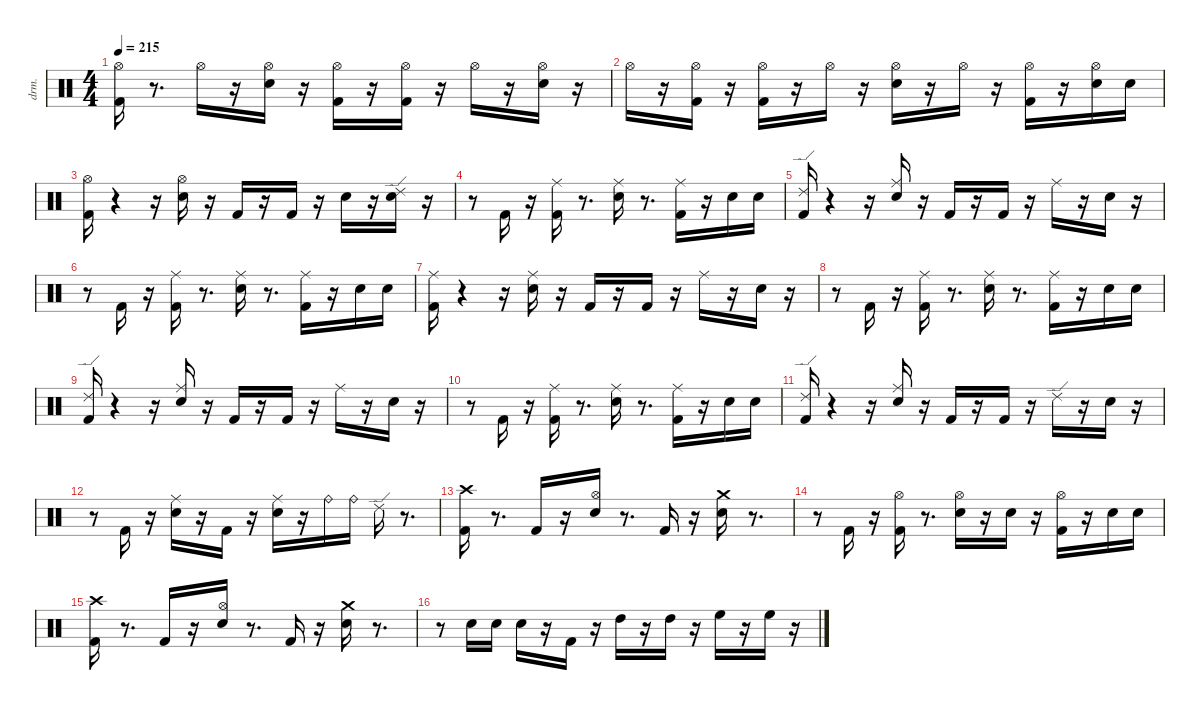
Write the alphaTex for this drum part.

\defaultSystemsLayout 4
\hideDynamics
\bracketExtendMode nobrackets
\otherSystemsTrackNameOrientation horizontal
\track ("drums(暫定)" "drm.") {instrument percussion}
\staff {score}
\articulation defaults
\ts (4 4)
\tempo 215
\clef neutral
\ks aminor
("Kick (hit) 2" "Hi-Hat (open)"{acc #}).16{dy ff beam Down} r.8{d beam Down} "Hi-Hat (open)"{acc #}.16{dy mp beam Down} r.16{beam Down} ("Snare (hit) 2" "Hi-Hat (open)"{acc #}).16{dy ff beam Down} r.16{beam Down} ("Kick (hit) 2" "Hi-Hat (open)"{acc #}).16{dy f beam Down} r.16{beam Down} ("Kick (hit) 2" "Hi-Hat (open)"{acc #}).16{dy ff beam Down} r.16{beam Down} "Hi-Hat (open)"{acc #}.16{dy mf beam Down} r.16{beam Down} ("Snare (hit) 2" "Hi-Hat (open)"{acc #}).16{dy ff beam Down} r.16{beam Down} |
"Hi-Hat (open)"{acc #}.16{dy p beam Down} r.16{beam Down} ("Kick (hit) 2" "Hi-Hat (open)"{acc #}).16{dy ff beam Down} r.16{beam Down} ("Kick (hit) 2" "Hi-Hat (open)"{acc #}).16{beam Down} r.16{beam Down} "Hi-Hat (open)"{acc #}.16{dy ppp beam Down} r.16{beam Down} ("Snare (hit) 2" "Hi-Hat (open)"{acc #}).16{dy ff beam Down} r.16{beam Down} "Hi-Hat (open)"{acc #}.16{dy ppp beam Down} r.16{beam Down} ("Kick (hit) 2" "Hi-Hat (open)"{acc #}).16{dy f beam Down} r.16{beam Down} ("Snare (hit) 2" "Hi-Hat (open)"{acc #}).16{beam Down} "Snare (hit) 2".16{dy pp beam Down} |
("Kick (hit) 2" "Hi-Hat (open)"{acc #}).16{dy fff beam Down} r.4{beam Down} r.16{beam Down} ("Snare (hit) 2" "Hi-Hat (open)"{acc #}).16{dy ff beam Down} r.16{beam Down} "Kick (hit) 2".16{dy f beam Up} r.16{beam Up} "Kick (hit) 2".16{dy ff beam Up} r.16{beam Up} "Snare (hit) 2".16{dy ppp beam Down} r.16{beam Down} ("Snare (hit) 2" "Ride (edge) 2").16{dy fff beam Down} r.16{beam Down} |
r.8{beam Down} "Kick (hit) 2".16{dy f beam Up} r.16{beam Up} ("Kick (hit) 2" "Ride (middle)"{acc #}).16{dy ff beam Down} r.8{d beam Down} ("Snare (hit) 2" "Ride (middle)"{acc #}).16{beam Down} r.8{d beam Down} ("Kick (hit) 2" "Ride (middle)"{acc #}).16{dy f beam Down} r.16{beam Down} "Snare (hit) 2".16{beam Down} "Snare (hit) 2".16{dy pp beam Down} |
("Kick (hit) 2" "Ride (edge) 2").16{dy ff beam Up} r.4{beam Up} r.16{beam Up} ("Snare (hit) 2" "Ride (middle)"{acc #}).16{beam Down} r.16{beam Down} "Kick (hit) 2".16{dy f beam Up} r.16{beam Up} "Kick (hit) 2".16{dy ff beam Up} r.16{beam Up} "Ride (middle)"{acc #}.16{dy mp beam Down} r.16{beam Down} "Snare (hit) 2".16{dy ff beam Down} r.16{beam Down} |
r.8{beam Down} "Kick (hit) 2".16{beam Up} r.16{beam Up} ("Kick (hit) 2" "Ride (middle)"{acc #}).16{beam Down} r.8{d beam Down} ("Snare (hit) 2" "Ride (middle)"{acc #}).16{beam Down} r.8{d beam Down} ("Kick (hit) 2" "Ride (middle)"{acc #}).16{dy f beam Down} r.16{beam Down} "Snare (hit) 2".16{beam Down} "Snare (hit) 2".16{dy pp beam Down} |
("Kick (hit) 2" "Ride (middle)"{acc #}).16{dy ff beam Down} r.4{beam Down} r.16{beam Down} ("Snare (hit) 2" "Ride (middle)"{acc #}).16{beam Down} r.16{beam Down} "Kick (hit) 2".16{dy f beam Up} r.16{beam Up} "Kick (hit) 2".16{dy ff beam Up} r.16{beam Up} "Ride (middle)"{acc #}.16{dy mp beam Down} r.16{beam Down} "Snare (hit) 2".16{dy ff beam Down} r.16{beam Down} |
r.8{beam Down} "Kick (hit) 2".16{beam Up} r.16{beam Up} ("Kick (hit) 2" "Ride (middle)"{acc #}).16{beam Down} r.8{d beam Down} ("Snare (hit) 2" "Ride (middle)"{acc #}).16{beam Down} r.8{d beam Down} ("Kick (hit) 2" "Ride (middle)"{acc #}).16{dy f beam Down} r.16{beam Down} "Snare (hit) 2".16{beam Down} "Snare (hit) 2".16{dy pp beam Down} |
("Kick (hit) 2" "Ride (edge) 2").16{dy ff beam Up} r.4{beam Up} r.16{beam Up} ("Snare (hit) 2" "Ride (middle)"{acc #}).16{beam Down} r.16{beam Down} "Kick (hit) 2".16{dy f beam Up} r.16{beam Up} "Kick (hit) 2".16{dy ff beam Up} r.16{beam Up} "Ride (middle)"{acc #}.16{dy mp beam Down} r.16{beam Down} "Snare (hit) 2".16{dy ff beam Down} r.16{beam Down} |
r.8{beam Down} "Kick (hit) 2".16{beam Up} r.16{beam Up} ("Kick (hit) 2" "Ride (middle)"{acc #}).16{beam Down} r.8{d beam Down} ("Snare (hit) 2" "Ride (middle)"{acc #}).16{beam Down} r.8{d beam Down} ("Kick (hit) 2" "Ride (middle)"{acc #}).16{dy f beam Down} r.16{beam Down} "Snare (hit) 2".16{beam Down} "Snare (hit) 2".16{dy pp beam Down} |
("Kick (hit) 2" "Ride (edge) 2").16{dy ff beam Up} r.4{beam Up} r.16{beam Up} ("Snare (hit) 2" "Ride (middle)"{acc #}).16{beam Down} r.16{beam Down} "Kick (hit) 2".16{dy f beam Up} r.16{beam Up} "Kick (hit) 2".16{dy ff beam Up} r.16{beam Up} "Ride (edge) 2".16{beam Down} r.16{beam Down} "Snare (hit) 2".16{beam Down} r.16{beam Down} |
r.8{beam Down} "Kick (hit) 2".16{beam Up} r.16{beam Up} ("Snare (hit) 2" "Ride (middle)"{acc #}).16{beam Down} r.16{beam Down} "Kick (hit) 2".16{beam Up} r.16{beam Up} ("Snare (hit) 2" "Ride (middle)"{acc #}).16{beam Down} r.16{beam Down} "Ride (bell)".16{dy f beam Down} "Ride (bell)".16{dy p beam Down} "Ride (edge) 2".16{dy fff beam Down} r.8{d beam Down} |
("Kick (hit) 2" "Crash high (hit)"{acc #}).16{beam Down} r.8{d beam Down} "Kick (hit) 2".16{dy f beam Up} r.16{beam Up} ("Snare (hit) 2" "Hi-Hat (open)"{acc #}).16{dy ff beam Down} r.8{d beam Down} "Kick (hit) 2".16{beam Up} r.16{beam Up} ("Snare (hit) 2" "Crash medium (hit)").16{beam Down} r.8{d beam Down} |
r.8{beam Down} "Kick (hit) 2".16{dy mf beam Up} r.16{beam Up} ("Kick (hit) 2" "Hi-Hat (open)"{acc #}).16{dy fff beam Down} r.8{d beam Down} ("Snare (hit) 2" "Hi-Hat (open)"{acc #}).16{beam Down} r.16{beam Down} "Snare (hit) 2".16{dy p beam Down} r.16{beam Down} ("Kick (hit) 2" "Hi-Hat (open)"{acc #}).16{dy ff beam Down} r.16{beam Down} "Snare (hit) 2".16{dy mp beam Down} "Snare (hit) 2".16{dy ppp beam Down} |
("Kick (hit) 2" "Crash high (hit)"{acc #}).16{dy fff beam Down} r.8{d beam Down} "Kick (hit) 2".16{dy f beam Up} r.16{beam Up} ("Snare (hit) 2" "Hi-Hat (open)"{acc #}).16{dy ff beam Down} r.8{d beam Down} "Kick (hit) 2".16{beam Up} r.16{beam Up} ("Snare (hit) 2" "Crash medium (hit)").16{beam Down} r.8{d beam Down} |
r.8{beam Down} "Snare (hit) 2".16{dy mf beam Down} "Snare (hit) 2".16{dy p beam Down} "Snare (hit) 2".16{dy ff beam Down} r.16{beam Down} "Kick (hit) 2".16{beam Up} r.16{beam Up} "High Tom (hit)".16{beam Down} r.16{beam Down} "High Tom (hit)".16{dy f beam Down} r.16{beam Down} "High Floor Tom (hit)".16{dy ff beam Down} r.16{beam Down} "High Floor Tom (hit)".16{dy f beam Down} r.16{beam Down}
